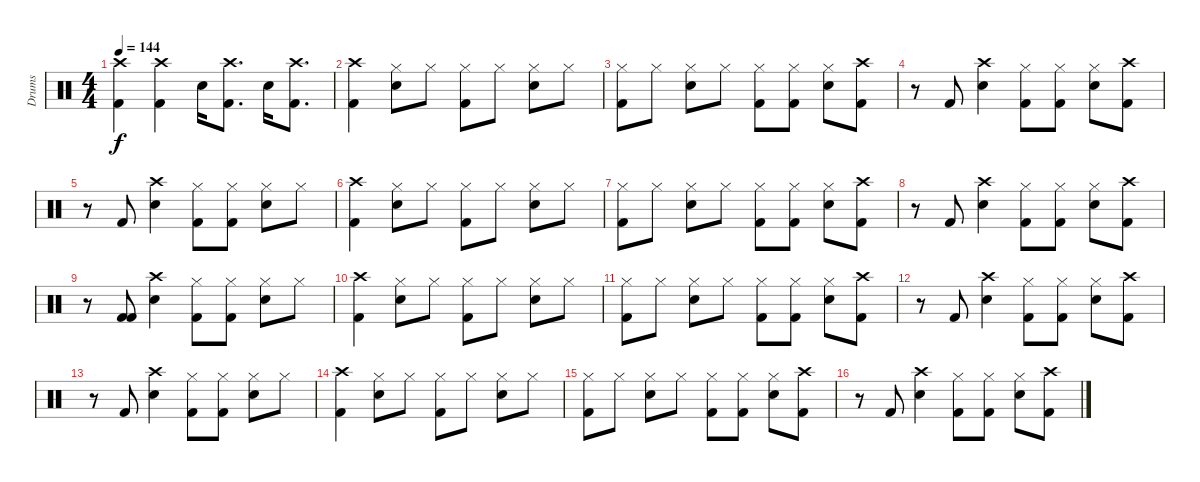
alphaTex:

\track ("Drums" "Drums") {instrument percussion}
\staff {score}
\articulation defaults
\ts (4 4)
\tempo 144
\clef neutral
\ks c
("Crash high (hit)" "Kick (hit) 2").4{dy f} ("Crash high (hit)" "Kick (hit) 2").4 "Snare (hit) 2".16 ("Crash high (hit)" "Kick (hit) 2").8{d} "Snare (hit) 2".16 ("Crash high (hit)" "Kick (hit) 2").8{d} |
("Crash high (hit)" "Kick (hit) 2").4 ("Hi-Hat (closed)" "Snare (hit) 2").8 "Hi-Hat (closed)".8 ("Hi-Hat (closed)" "Kick (hit) 2").8 "Hi-Hat (closed)".8 ("Hi-Hat (closed)" "Snare (hit) 2").8 "Hi-Hat (closed)".8 |
("Hi-Hat (closed)" "Kick (hit) 2").8 "Hi-Hat (closed)".8 ("Hi-Hat (closed)" "Snare (hit) 2").8 "Hi-Hat (closed)".8 ("Hi-Hat (closed)" "Kick (hit) 2").8 ("Hi-Hat (closed)" "Kick (hit) 2").8 ("Hi-Hat (closed)" "Snare (hit) 2").8 ("Crash high (hit)" "Kick (hit) 2").8 |
r.8 "Kick (hit) 2".8 ("Crash high (hit)" "Snare (hit) 2").4 ("Hi-Hat (closed)" "Kick (hit) 2").8 ("Hi-Hat (closed)" "Kick (hit) 2").8 ("Hi-Hat (closed)" "Snare (hit) 2").8 ("Crash high (hit)" "Kick (hit) 2").8 |
r.8 "Kick (hit) 2".8 ("Crash high (hit)" "Snare (hit) 2").4 ("Kick (hit) 2" "Hi-Hat (closed)").8 ("Kick (hit) 2" "Hi-Hat (closed)").8 ("Snare (hit) 2" "Hi-Hat (closed)").8 "Hi-Hat (closed)".8 |
("Crash high (hit)" "Kick (hit) 2").4 ("Hi-Hat (closed)" "Snare (hit) 2").8 "Hi-Hat (closed)".8 ("Hi-Hat (closed)" "Kick (hit) 2").8 "Hi-Hat (closed)".8 ("Hi-Hat (closed)" "Snare (hit) 2").8 "Hi-Hat (closed)".8 |
("Hi-Hat (closed)" "Kick (hit) 2").8 "Hi-Hat (closed)".8 ("Hi-Hat (closed)" "Snare (hit) 2").8 "Hi-Hat (closed)".8 ("Hi-Hat (closed)" "Kick (hit) 2").8 ("Hi-Hat (closed)" "Kick (hit) 2").8 ("Hi-Hat (closed)" "Snare (hit) 2").8 ("Crash high (hit)" "Kick (hit) 2").8 |
r.8 "Kick (hit) 2".8 ("Crash high (hit)" "Snare (hit) 2").4 ("Hi-Hat (closed)" "Kick (hit) 2").8 ("Hi-Hat (closed)" "Kick (hit) 2").8 ("Hi-Hat (closed)" "Snare (hit) 2").8 ("Crash high (hit)" "Kick (hit) 2").8 |
r.8 ("Kick (hit) 2" "Kick (hit) 2").8 ("Crash high (hit)" "Snare (hit) 2").4 ("Kick (hit) 2" "Hi-Hat (closed)").8 ("Kick (hit) 2" "Hi-Hat (closed)").8 ("Snare (hit) 2" "Hi-Hat (closed)").8 "Hi-Hat (closed)".8 |
("Crash high (hit)" "Kick (hit) 2").4 ("Hi-Hat (closed)" "Snare (hit) 2").8 "Hi-Hat (closed)".8 ("Hi-Hat (closed)" "Kick (hit) 2").8 "Hi-Hat (closed)".8 ("Hi-Hat (closed)" "Snare (hit) 2").8 "Hi-Hat (closed)".8 |
("Hi-Hat (closed)" "Kick (hit) 2").8 "Hi-Hat (closed)".8 ("Hi-Hat (closed)" "Snare (hit) 2").8 "Hi-Hat (closed)".8 ("Hi-Hat (closed)" "Kick (hit) 2").8 ("Hi-Hat (closed)" "Kick (hit) 2").8 ("Hi-Hat (closed)" "Snare (hit) 2").8 ("Crash high (hit)" "Kick (hit) 2").8 |
r.8 "Kick (hit) 2".8 ("Crash high (hit)" "Snare (hit) 2").4 ("Hi-Hat (closed)" "Kick (hit) 2").8 ("Hi-Hat (closed)" "Kick (hit) 2").8 ("Hi-Hat (closed)" "Snare (hit) 2").8 ("Crash high (hit)" "Kick (hit) 2").8 |
r.8 "Kick (hit) 2".8 ("Crash high (hit)" "Snare (hit) 2").4 ("Kick (hit) 2" "Hi-Hat (closed)").8 ("Kick (hit) 2" "Hi-Hat (closed)").8 ("Snare (hit) 2" "Hi-Hat (closed)").8 "Hi-Hat (closed)".8 |
("Crash high (hit)" "Kick (hit) 2").4 ("Hi-Hat (closed)" "Snare (hit) 2").8 "Hi-Hat (closed)".8 ("Hi-Hat (closed)" "Kick (hit) 2").8 "Hi-Hat (closed)".8 ("Hi-Hat (closed)" "Snare (hit) 2").8 "Hi-Hat (closed)".8 |
("Hi-Hat (closed)" "Kick (hit) 2").8 "Hi-Hat (closed)".8 ("Hi-Hat (closed)" "Snare (hit) 2").8 "Hi-Hat (closed)".8 ("Hi-Hat (closed)" "Kick (hit) 2").8 ("Hi-Hat (closed)" "Kick (hit) 2").8 ("Hi-Hat (closed)" "Snare (hit) 2").8 ("Crash high (hit)" "Kick (hit) 2").8 |
r.8 "Kick (hit) 2".8 ("Crash high (hit)" "Snare (hit) 2").4 ("Hi-Hat (closed)" "Kick (hit) 2").8 ("Hi-Hat (closed)" "Kick (hit) 2").8 ("Hi-Hat (closed)" "Snare (hit) 2").8 ("Crash high (hit)" "Kick (hit) 2").8
